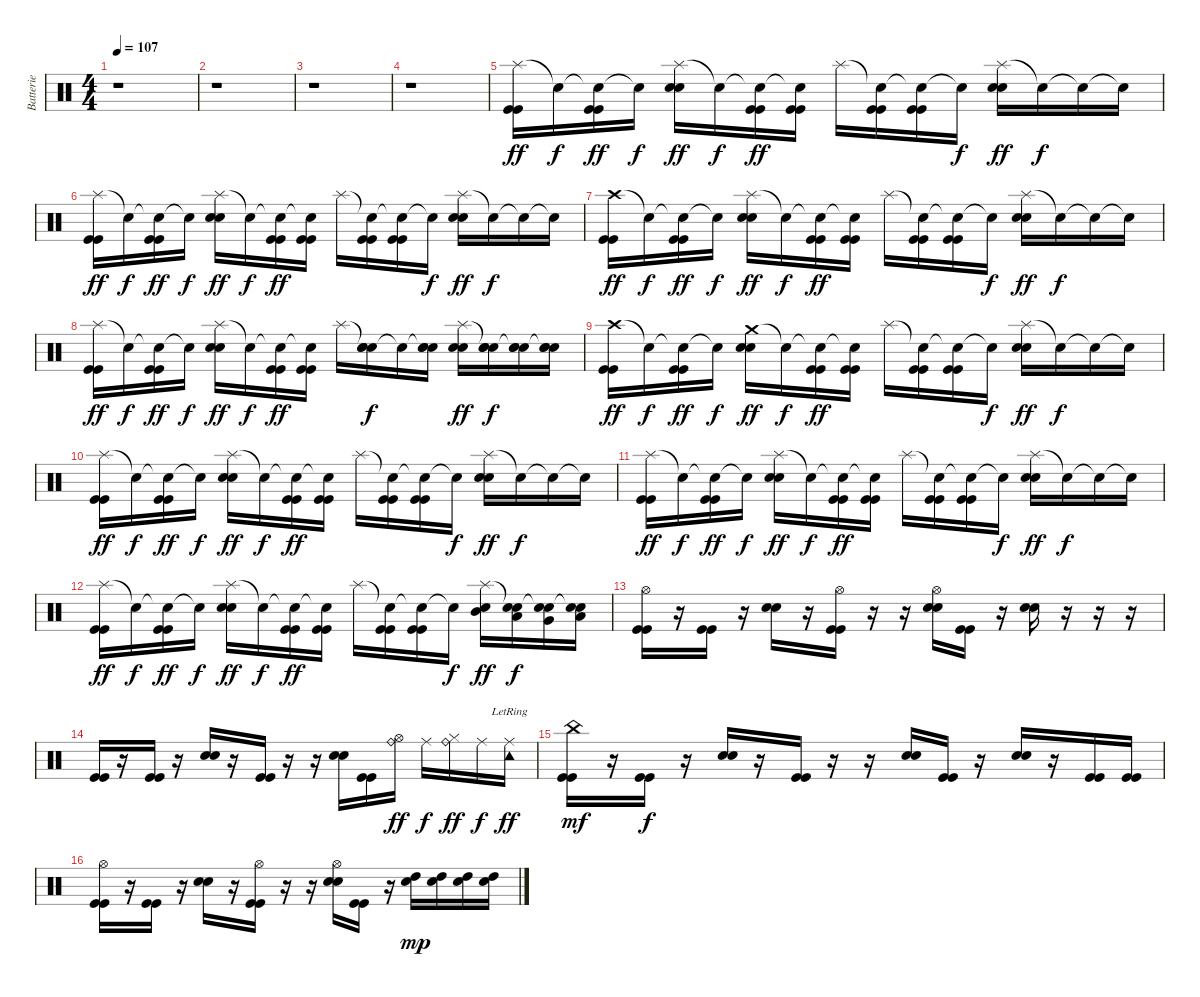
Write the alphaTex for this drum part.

\track ("Batterie" "Batterie") {instrument percussion}
\staff {score}
\articulation defaults
\ts (4 4)
\tempo 107
\clef neutral
\ks c
r.1{dy ff} |
r.1 |
r.1 |
r.1 |
("Splash (hit)" "Kick (hit)" "Kick (hit)").16 "Snare (hit)"{t}.16{dy f} ("Snare (hit)"{t} "Kick (hit)" "Kick (hit)").16{dy ff} "Snare (hit)"{t}.16{dy f} ("Splash (hit)" "Snare (hit) 2" "Snare (hit) 2").16{dy ff} "Snare (hit)"{t}.16{dy f} ("Snare (hit)"{t} "Kick (hit)" "Kick (hit)").16{dy ff} ("Snare (hit)"{t} "Kick (hit)" "Kick (hit)").16 "Splash (hit)".16 ("Snare (hit)"{t} "Kick (hit)" "Kick (hit)").16 ("Snare (hit)"{t} "Kick (hit)" "Kick (hit)").16 "Snare (hit)"{t}.16{dy f} ("Splash (hit)" "Snare (hit) 2" "Snare (hit) 2").16{dy ff} "Snare (hit)"{t}.16{dy f} "Snare (hit)"{t}.16 "Snare (hit)"{t}.16 |
("Splash (hit)" "Kick (hit)" "Kick (hit)").16{dy ff} "Snare (hit)"{t}.16{dy f} ("Snare (hit)"{t} "Kick (hit)" "Kick (hit)").16{dy ff} "Snare (hit)"{t}.16{dy f} ("Splash (hit)" "Snare (hit) 2" "Snare (hit) 2").16{dy ff} "Snare (hit)"{t}.16{dy f} ("Snare (hit)"{t} "Kick (hit)" "Kick (hit)").16{dy ff} ("Snare (hit)"{t} "Kick (hit)" "Kick (hit)").16 "Splash (hit)".16 ("Snare (hit)"{t} "Kick (hit)" "Kick (hit)").16 ("Snare (hit)"{t} "Kick (hit)" "Kick (hit)").16 "Snare (hit)"{t}.16{dy f} ("Splash (hit)" "Snare (hit) 2" "Snare (hit) 2").16{dy ff} "Snare (hit)"{t}.16{dy f} "Snare (hit)"{t}.16 "Snare (hit)"{t}.16 |
("Crash high (hit)" "Kick (hit)" "Kick (hit)").16{dy ff} "Snare (hit)"{t}.16{dy f} ("Snare (hit)"{t} "Kick (hit)" "Kick (hit)").16{dy ff} "Snare (hit)"{t}.16{dy f} ("Splash (hit)" "Snare (hit) 2" "Snare (hit) 2").16{dy ff} "Snare (hit)"{t}.16{dy f} ("Snare (hit)"{t} "Kick (hit)" "Kick (hit)").16{dy ff} ("Snare (hit)"{t} "Kick (hit)" "Kick (hit)").16 "Splash (hit)".16 ("Snare (hit)"{t} "Kick (hit)" "Kick (hit)").16 ("Snare (hit)"{t} "Kick (hit)" "Kick (hit)").16 "Snare (hit)"{t}.16{dy f} ("Splash (hit)" "Snare (hit) 2" "Snare (hit) 2").16{dy ff} "Snare (hit)"{t}.16{dy f} "Snare (hit)"{t}.16 "Snare (hit)"{t}.16 |
("Splash (hit)" "Kick (hit)" "Kick (hit)").16{dy ff} "Snare (hit)"{t}.16{dy f} ("Snare (hit)"{t} "Kick (hit)" "Kick (hit)").16{dy ff} "Snare (hit)"{t}.16{dy f} ("Splash (hit)" "Snare (hit) 2" "Snare (hit) 2").16{dy ff} "Snare (hit)"{t}.16{dy f} ("Snare (hit)"{t} "Kick (hit)" "Kick (hit)").16{dy ff} ("Snare (hit)"{t} "Kick (hit)" "Kick (hit)").16 "Splash (hit)".16 ("Snare (hit)"{t} "Snare (hit) 2" "Snare (hit) 2").16{dy f} "Snare (hit)"{t}.16 ("Snare (hit)"{t} "Snare (hit) 2" "Snare (hit) 2").16 ("Splash (hit)" "Snare (hit) 2" "Snare (hit) 2").16{dy ff} ("Snare (hit)"{t} "Snare (hit) 2" "Snare (hit) 2").16{dy f} ("Snare (hit)"{t} "Snare (hit) 2" "Snare (hit) 2").16 ("Snare (hit)"{t} "Snare (hit) 2" "Snare (hit) 2").16 |
("Crash high (hit)" "Kick (hit)" "Kick (hit)").16{dy ff} "Snare (hit)"{t}.16{dy f} ("Snare (hit)"{t} "Kick (hit)" "Kick (hit)").16{dy ff} "Snare (hit)"{t}.16{dy f} ("Crash medium (hit)" "Snare (hit) 2" "Snare (hit) 2").16{dy ff} "Snare (hit)"{t}.16{dy f} ("Snare (hit)"{t} "Kick (hit)" "Kick (hit)").16{dy ff} ("Snare (hit)"{t} "Kick (hit)" "Kick (hit)").16 "Splash (hit)".16 ("Snare (hit)"{t} "Kick (hit)" "Kick (hit)").16 ("Snare (hit)"{t} "Kick (hit)" "Kick (hit)").16 "Snare (hit)"{t}.16{dy f} ("Splash (hit)" "Snare (hit) 2" "Snare (hit) 2").16{dy ff} "Snare (hit)"{t}.16{dy f} "Snare (hit)"{t}.16 "Snare (hit)"{t}.16 |
("Splash (hit)" "Kick (hit)" "Kick (hit)").16{dy ff} "Snare (hit)"{t}.16{dy f} ("Snare (hit)"{t} "Kick (hit)" "Kick (hit)").16{dy ff} "Snare (hit)"{t}.16{dy f} ("Splash (hit)" "Snare (hit) 2" "Snare (hit) 2").16{dy ff} "Snare (hit)"{t}.16{dy f} ("Snare (hit)"{t} "Kick (hit)" "Kick (hit)").16{dy ff} ("Snare (hit)"{t} "Kick (hit)" "Kick (hit)").16 "Splash (hit)".16 ("Snare (hit)"{t} "Kick (hit)" "Kick (hit)").16 ("Snare (hit)"{t} "Kick (hit)" "Kick (hit)").16 "Snare (hit)"{t}.16{dy f} ("Splash (hit)" "Snare (hit) 2" "Snare (hit) 2").16{dy ff} "Snare (hit)"{t}.16{dy f} "Snare (hit)"{t}.16 "Snare (hit)"{t}.16 |
("Splash (hit)" "Kick (hit)" "Kick (hit)").16{dy ff} "Snare (hit)"{t}.16{dy f} ("Snare (hit)"{t} "Kick (hit)" "Kick (hit)").16{dy ff} "Snare (hit)"{t}.16{dy f} ("Splash (hit)" "Snare (hit) 2" "Snare (hit) 2").16{dy ff} "Snare (hit)"{t}.16{dy f} ("Snare (hit)"{t} "Kick (hit)" "Kick (hit)").16{dy ff} ("Snare (hit)"{t} "Kick (hit)" "Kick (hit)").16 "Splash (hit)".16 ("Snare (hit)"{t} "Kick (hit)" "Kick (hit)").16 ("Snare (hit)"{t} "Kick (hit)" "Kick (hit)").16 "Snare (hit)"{t}.16{dy f} ("Splash (hit)" "Snare (hit) 2" "Snare (hit) 2").16{dy ff} "Snare (hit)"{t}.16{dy f} "Snare (hit)"{t}.16 "Snare (hit)"{t}.16 |
("Splash (hit)" "Kick (hit)" "Kick (hit)").16{dy ff} "Snare (hit)"{t}.16{dy f} ("Snare (hit)"{t} "Kick (hit)" "Kick (hit)").16{dy ff} "Snare (hit)"{t}.16{dy f} ("Splash (hit)" "Snare (hit) 2" "Snare (hit) 2").16{dy ff} "Snare (hit)"{t}.16{dy f} ("Snare (hit)"{t} "Kick (hit)" "Kick (hit)").16{dy ff} ("Snare (hit)"{t} "Kick (hit)" "Kick (hit)").16 "Splash (hit)".16 ("Snare (hit)"{t} "Kick (hit)" "Kick (hit)").16 ("Snare (hit)"{t} "Kick (hit)" "Kick (hit)").16 "Snare (hit)"{t}.16{dy f} ("Splash (hit)" "Mid Tom (hit)" "Electric Snare (hit)").16{dy ff} ("Snare (hit)"{t} "Low Tom (hit)" "Electric Snare (hit)").16{dy f} ("Snare (hit)"{t} "Very Low Tom (hit)" "Electric Snare (hit)").16 ("Snare (hit)"{t} "Low Floor Tom (hit)" "Electric Snare (hit)").16 |
("Hi-Hat (open)" "Kick (hit)" "Kick (hit)").16 r.16 ("Kick (hit)" "Kick (hit)").16 r.16 ("Snare (hit) 2" "Snare (hit) 2").16 r.16 ("Hi-Hat (open)" "Kick (hit)" "Kick (hit)").16 r.16 r.16 ("Hi-Hat (open)" "Snare (hit) 2" "Snare (hit) 2").16 ("Kick (hit)" "Kick (hit)").16 r.16 ("Snare (hit) 2" "Snare (hit) 2").16 r.16 r.16 r.16 |
("Kick (hit)" "Kick (hit)").16 r.16 ("Kick (hit)" "Kick (hit)").16 r.16 ("Snare (hit) 2" "Snare (hit) 2").16 r.16 ("Kick (hit)" "Kick (hit)").16 r.16 r.16 ("Snare (hit) 2" "Snare (hit) 2").16 ("Kick (hit)" "Kick (hit)").16 ("Hi-Hat (open)" "Ride (bell)").16{dy ff} "Ride (middle)".16{dy f} ("Ride (bell)" "Hi-Hat (closed)").16{dy ff} "Ride (middle)".16{dy f} ("Tambourine (hit)"{lr} "Ride (middle)").16{dy ff} |
("China (hit)" "Kick (hit)" "Kick (hit)").16{dy mf} r.16 ("Kick (hit)" "Kick (hit)").16{dy f} r.16 ("Snare (hit) 2" "Snare (hit) 2").16 r.16 ("Kick (hit)" "Kick (hit)").16 r.16 r.16 ("Snare (hit) 2" "Snare (hit) 2").16 ("Kick (hit)" "Kick (hit)").16 r.16 ("Snare (hit) 2" "Snare (hit) 2").16 r.16 ("Kick (hit)" "Kick (hit)").16 ("Kick (hit)" "Kick (hit)").16 |
("Hi-Hat (open)" "Kick (hit)" "Kick (hit)").16 r.16 ("Kick (hit)" "Kick (hit)").16 r.16 ("Snare (hit) 2" "Snare (hit) 2").16 r.16 ("Hi-Hat (open)" "Kick (hit)" "Kick (hit)").16 r.16 r.16 ("Hi-Hat (open)" "Snare (hit) 2" "Snare (hit) 2").16 ("Kick (hit)" "Kick (hit)").16 r.16 ("High Tom (hit)" "Electric Snare (hit)").16{dy mp} ("High Tom (hit)" "Electric Snare (hit)").16 ("High Tom (hit)" "Electric Snare (hit)").16 ("High Tom (hit)" "Electric Snare (hit)").16
